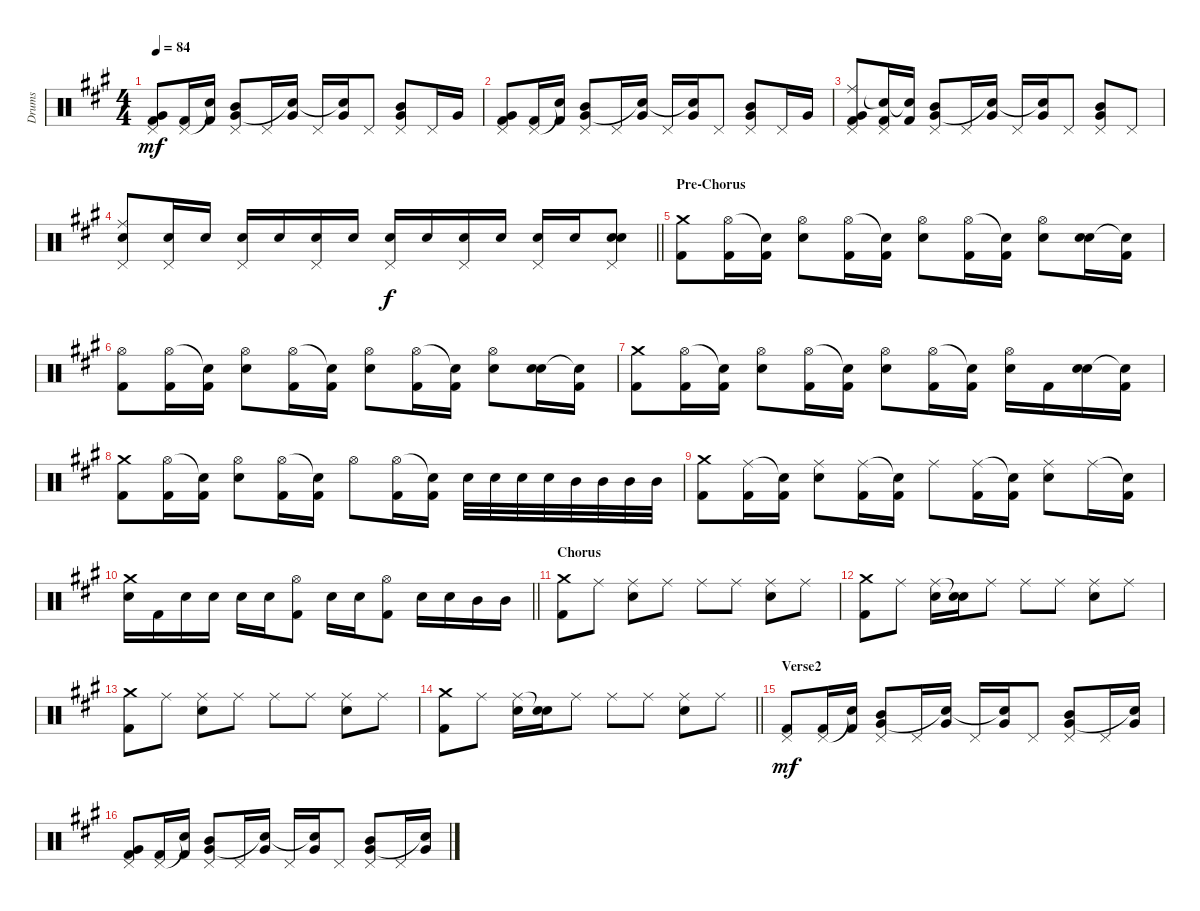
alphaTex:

\track ("Drums" "Drums") {instrument percussion}
\staff {score}
\articulation defaults
\ts (4 4)
\tempo 84
\clef neutral
\ks a
("Very Low Tom (hit)" "Pedal Hi-Hat (hit)" "Kick (hit) 2").8{dy mf} ("Pedal Hi-Hat (hit)" "Kick (hit) 2").16 ("Snare (hit)"{t} "Kick (hit) 2").16 ("Mid Tom (hit)" "Very Low Tom (hit)" "Pedal Hi-Hat (hit)").8 "Pedal Hi-Hat (hit)".16 ("Very Low Tom (hit)" "Snare (hit)"{t}).16 "Pedal Hi-Hat (hit)".16 ("Very Low Tom (hit)" "Snare (hit)"{t}).16 "Pedal Hi-Hat (hit)".8 ("Mid Tom (hit)" "Very Low Tom (hit)" "Pedal Hi-Hat (hit)").8 "Pedal Hi-Hat (hit)".16 "Very Low Tom (hit)".16 |
("Very Low Tom (hit)" "Pedal Hi-Hat (hit)" "Kick (hit) 2").8 ("Pedal Hi-Hat (hit)" "Kick (hit) 2").16 ("Snare (hit)"{t} "Kick (hit) 2").16 ("Mid Tom (hit)" "Very Low Tom (hit)" "Pedal Hi-Hat (hit)").8 "Pedal Hi-Hat (hit)".16 ("Very Low Tom (hit)" "Snare (hit)"{t}).16 "Pedal Hi-Hat (hit)".16 ("Very Low Tom (hit)" "Snare (hit)"{t}).16 "Pedal Hi-Hat (hit)".8 ("Mid Tom (hit)" "Very Low Tom (hit)" "Pedal Hi-Hat (hit)").8 "Pedal Hi-Hat (hit)".16 "Very Low Tom (hit)".16 |
("Ride (middle)" "Very Low Tom (hit)" "Pedal Hi-Hat (hit)" "Kick (hit) 2").8 ("Snare (hit)"{t} "Pedal Hi-Hat (hit)" "Kick (hit) 2").16 ("Snare (hit)"{t} "Kick (hit) 2").16 ("Mid Tom (hit)" "Very Low Tom (hit)" "Pedal Hi-Hat (hit)").8 "Pedal Hi-Hat (hit)".16 ("Very Low Tom (hit)" "Snare (hit)"{t}).16 "Pedal Hi-Hat (hit)".16 ("Very Low Tom (hit)" "Snare (hit)"{t}).16 "Pedal Hi-Hat (hit)".8 ("Mid Tom (hit)" "Very Low Tom (hit)" "Pedal Hi-Hat (hit)").8 "Pedal Hi-Hat (hit)".8 |
\barLineRight lightlight
("Ride (middle)" "Electric Snare (hit)" "Pedal Hi-Hat (hit)").8 ("Electric Snare (hit)" "Pedal Hi-Hat (hit)").16 "Electric Snare (hit)".16 ("Electric Snare (hit)" "Pedal Hi-Hat (hit)").16 "Electric Snare (hit)".16 ("Electric Snare (hit)" "Pedal Hi-Hat (hit)").16 "Electric Snare (hit)".16 ("Electric Snare (hit)" "Pedal Hi-Hat (hit)").16{dy f} "Electric Snare (hit)".16 ("Electric Snare (hit)" "Pedal Hi-Hat (hit)").16 "Electric Snare (hit)".16 ("Electric Snare (hit)" "Pedal Hi-Hat (hit)").16 "Electric Snare (hit)".16 ("Electric Snare (hit)" "Electric Snare (hit)" "Pedal Hi-Hat (hit)").8 |
\section ("" "Pre-Chorus")
("Crash medium (hit)" "Kick (hit) 2").8 ("Hi-Hat (open)" "Kick (hit) 2").16 ("Snare (hit)"{t} "Kick (hit) 2").16 ("Hi-Hat (open)" "Electric Snare (hit)").8 ("Hi-Hat (open)" "Kick (hit) 2").16 ("Snare (hit)"{t} "Kick (hit) 2").16 ("Hi-Hat (open)" "Electric Snare (hit)").8 ("Hi-Hat (open)" "Kick (hit) 2").16 ("Snare (hit)"{t} "Kick (hit) 2").16 ("Hi-Hat (open)" "Electric Snare (hit)").8 ("Electric Snare (hit)" "Electric Snare (hit)").16 ("Snare (hit)"{t} "Kick (hit) 2").16 |
("Hi-Hat (open)" "Kick (hit) 2").8 ("Hi-Hat (open)" "Kick (hit) 2").16 ("Snare (hit)"{t} "Kick (hit) 2").16 ("Hi-Hat (open)" "Electric Snare (hit)").8 ("Hi-Hat (open)" "Kick (hit) 2").16 ("Snare (hit)"{t} "Kick (hit) 2").16 ("Hi-Hat (open)" "Electric Snare (hit)").8 ("Hi-Hat (open)" "Kick (hit) 2").16 ("Snare (hit)"{t} "Kick (hit) 2").16 ("Hi-Hat (open)" "Electric Snare (hit)").8 ("Electric Snare (hit)" "Electric Snare (hit)").16 ("Snare (hit)"{t} "Kick (hit) 2").16 |
("Crash medium (hit)" "Kick (hit) 2").8 ("Hi-Hat (open)" "Kick (hit) 2").16 ("Snare (hit)"{t} "Kick (hit) 2").16 ("Hi-Hat (open)" "Electric Snare (hit)").8 ("Hi-Hat (open)" "Kick (hit) 2").16 ("Snare (hit)"{t} "Kick (hit) 2").16 ("Hi-Hat (open)" "Electric Snare (hit)").8 ("Hi-Hat (open)" "Kick (hit) 2").16 ("Snare (hit)"{t} "Kick (hit) 2").16 ("Hi-Hat (open)" "Electric Snare (hit)").16 "Kick (hit) 2".16 ("Electric Snare (hit)" "Electric Snare (hit)").16 ("Snare (hit)"{t} "Kick (hit) 2").16 |
("Crash medium (hit)" "Kick (hit) 2").8 ("Hi-Hat (open)" "Kick (hit) 2").16 ("Snare (hit)"{t} "Kick (hit) 2").16 ("Hi-Hat (open)" "Electric Snare (hit)").8 ("Hi-Hat (open)" "Kick (hit) 2").16 ("Snare (hit)"{t} "Kick (hit) 2").16 "Hi-Hat (open)".8 ("Hi-Hat (open)" "Kick (hit) 2").16 ("Snare (hit)"{t} "Kick (hit) 2").16 "Electric Snare (hit)".32 "Electric Snare (hit)".32 "Electric Snare (hit)".32 "Electric Snare (hit)".32 "Mid Tom (hit)".32 "Mid Tom (hit)".32 "Mid Tom (hit)".32 "Mid Tom (hit)".32 |
("Crash medium (hit)" "Kick (hit) 2").8 ("Ride (middle)" "Kick (hit) 2").16 ("Snare (hit)"{t} "Kick (hit) 2").16 ("Ride (middle)" "Electric Snare (hit)").8 ("Ride (middle)" "Kick (hit) 2").16 ("Snare (hit)"{t} "Kick (hit) 2").16 "Ride (middle)".8 ("Ride (middle)" "Kick (hit) 2").16 ("Snare (hit)"{t} "Kick (hit) 2").16 ("Ride (middle)" "Electric Snare (hit)").8 "Ride (middle)".16 ("Snare (hit)"{t} "Kick (hit) 2").16 |
\barLineRight lightlight
("Crash medium (hit)" "Electric Snare (hit)").16 "Kick (hit) 2".16 "Electric Snare (hit)".16 "Electric Snare (hit)".16 "Electric Snare (hit)".16 "Electric Snare (hit)".16 ("Hi-Hat (open)" "Kick (hit) 2").8 "Electric Snare (hit)".16 "Electric Snare (hit)".16 ("Hi-Hat (open)" "Kick (hit) 2").8 "Electric Snare (hit)".16 "Electric Snare (hit)".16 "Mid Tom (hit)".16 "Mid Tom (hit)".16 |
\section ("" "Chorus")
("Crash medium (hit)" "Kick (hit) 2").8 "Ride (middle)".8 ("Ride (middle)" "Electric Snare (hit)").8 "Ride (middle)".8 "Ride (middle)".8 "Ride (middle)".8 ("Ride (middle)" "Electric Snare (hit)").8 "Ride (middle)".8 |
("Crash medium (hit)" "Kick (hit) 2").8 "Ride (middle)".8 ("Ride (middle)" "Electric Snare (hit)").16 ("Snare (hit)"{t} "Electric Snare (hit)").16 "Ride (middle)".8 "Ride (middle)".8 "Ride (middle)".8 ("Ride (middle)" "Electric Snare (hit)").8 "Ride (middle)".8 |
("Crash medium (hit)" "Kick (hit) 2").8 "Ride (middle)".8 ("Ride (middle)" "Electric Snare (hit)").8 "Ride (middle)".8 "Ride (middle)".8 "Ride (middle)".8 ("Ride (middle)" "Electric Snare (hit)").8 "Ride (middle)".8 |
\barLineRight lightlight
("Crash medium (hit)" "Kick (hit) 2").8 "Ride (middle)".8 ("Ride (middle)" "Electric Snare (hit)").16 ("Snare (hit)"{t} "Electric Snare (hit)").16 "Ride (middle)".8 "Ride (middle)".8 "Ride (middle)".8 ("Ride (middle)" "Electric Snare (hit)").8 "Ride (middle)".8 |
\section ("" "Verse2")
("Pedal Hi-Hat (hit)" "Kick (hit) 2").8{dy mf} ("Pedal Hi-Hat (hit)" "Kick (hit) 2").16 ("Snare (hit)"{t} "Kick (hit) 2").16 ("Mid Tom (hit)" "Very Low Tom (hit)" "Pedal Hi-Hat (hit)").8 "Pedal Hi-Hat (hit)".16 ("Very Low Tom (hit)" "Snare (hit)"{t}).16 "Pedal Hi-Hat (hit)".16 ("Very Low Tom (hit)" "Snare (hit)"{t}).16 "Pedal Hi-Hat (hit)".8 ("Mid Tom (hit)" "Very Low Tom (hit)" "Pedal Hi-Hat (hit)").8 "Pedal Hi-Hat (hit)".16 ("Very Low Tom (hit)" "Snare (hit)"{t}).16 |
("Very Low Tom (hit)" "Pedal Hi-Hat (hit)" "Kick (hit) 2").8 ("Pedal Hi-Hat (hit)" "Kick (hit) 2").16 ("Snare (hit)"{t} "Kick (hit) 2").16 ("Mid Tom (hit)" "Very Low Tom (hit)" "Pedal Hi-Hat (hit)").8 "Pedal Hi-Hat (hit)".16 ("Very Low Tom (hit)" "Snare (hit)"{t}).16 "Pedal Hi-Hat (hit)".16 ("Very Low Tom (hit)" "Snare (hit)"{t}).16 "Pedal Hi-Hat (hit)".8 ("Mid Tom (hit)" "Very Low Tom (hit)" "Pedal Hi-Hat (hit)").8 "Pedal Hi-Hat (hit)".16 ("Very Low Tom (hit)" "Snare (hit)"{t}).16
